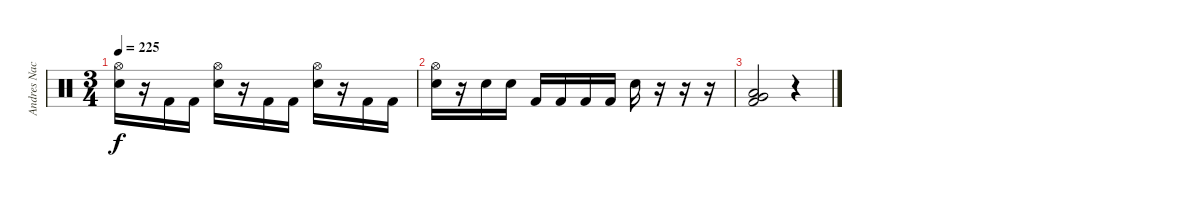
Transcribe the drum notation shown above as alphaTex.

\track ("Andres Nacrur" "Andres Nac") {instrument percussion}
\staff {score}
\articulation defaults
\ts (3 4)
\tempo 225
\clef neutral
\ks c
("Hi-Hat (open)" "Snare (hit) 2").16{dy f} r.16 "Kick (hit) 2".16 "Kick (hit) 2".16 ("Hi-Hat (open)" "Snare (hit) 2").16 r.16 "Kick (hit) 2".16 "Kick (hit) 2".16 ("Hi-Hat (open)" "Snare (hit) 2").16 r.16 "Kick (hit) 2".16 "Kick (hit) 2".16 |
("Hi-Hat (open)" "Snare (hit) 2").16 r.16 "Snare (hit) 2".16 "Snare (hit) 2".16 "Kick (hit) 2".16 "Kick (hit) 2".16 "Kick (hit) 2".16 "Kick (hit) 2".16 "Snare (hit) 2".16 r.16 r.16 r.16 |
("Low Tom (hit)" "Very Low Tom (hit)" "Kick (hit) 2").2 r.4
